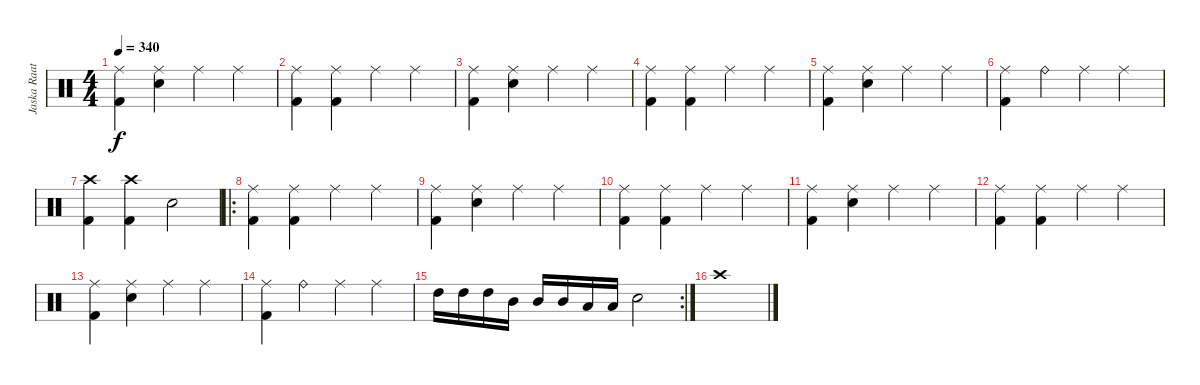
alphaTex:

\track ("Jaska Raatkinen" "Jaska Raat") {instrument percussion}
\staff {score}
\articulation defaults
\ts (4 4)
\tempo 340
\clef neutral
\ks c
("Ride (middle)" "Kick (hit) 2").4{dy f} ("Ride (middle)" "Snare (hit) 2").4 "Ride (middle)".4 "Ride (middle)".4 |
("Ride (middle)" "Kick (hit) 2").4 ("Ride (middle)" "Kick (hit) 2").4 "Ride (middle)".4 "Ride (middle)".4 |
("Ride (middle)" "Kick (hit) 2").4 ("Ride (middle)" "Snare (hit) 2").4 "Ride (middle)".4 "Ride (middle)".4 |
("Ride (middle)" "Kick (hit) 2").4 ("Ride (middle)" "Kick (hit) 2").4 "Ride (middle)".4 "Ride (middle)".4 |
("Ride (middle)" "Kick (hit) 2").4 ("Ride (middle)" "Snare (hit) 2").4 "Ride (middle)".4 "Ride (middle)".4 |
("Ride (middle)" "Kick (hit) 2").4 "Ride (bell)".4 "Ride (middle)".4 "Ride (middle)".4 |
("Crash high (hit)" "Kick (hit) 2").4 ("Crash high (hit)" "Kick (hit) 2").4 "Snare (hit) 2".2 |
\ro
("Ride (middle)" "Kick (hit) 2").4 ("Ride (middle)" "Kick (hit) 2").4 "Ride (middle)".4 "Ride (middle)".4 |
("Ride (middle)" "Kick (hit) 2").4 ("Ride (middle)" "Snare (hit) 2").4 "Ride (middle)".4 "Ride (middle)".4 |
("Ride (middle)" "Kick (hit) 2").4 ("Ride (middle)" "Kick (hit) 2").4 "Ride (middle)".4 "Ride (middle)".4 |
("Ride (middle)" "Kick (hit) 2").4 ("Ride (middle)" "Snare (hit) 2").4 "Ride (middle)".4 "Ride (middle)".4 |
("Ride (middle)" "Kick (hit) 2").4 ("Ride (middle)" "Kick (hit) 2").4 "Ride (middle)".4 "Ride (middle)".4 |
("Ride (middle)" "Kick (hit) 2").4 ("Ride (middle)" "Snare (hit) 2").4 "Ride (middle)".4 "Ride (middle)".4 |
("Ride (middle)" "Kick (hit) 2").4 "Ride (bell)".4 "Ride (middle)".4 "Ride (middle)".4 |
\rc 2 "High Tom (hit)".16 "High Tom (hit)".16 "High Tom (hit)".16 "Mid Tom (hit)".16 "Mid Tom (hit)".16 "Mid Tom (hit)".16 "Low Tom (hit)".16 "Low Tom (hit)".16 "Snare (hit) 2".2
|
"Crash high (hit)".1
